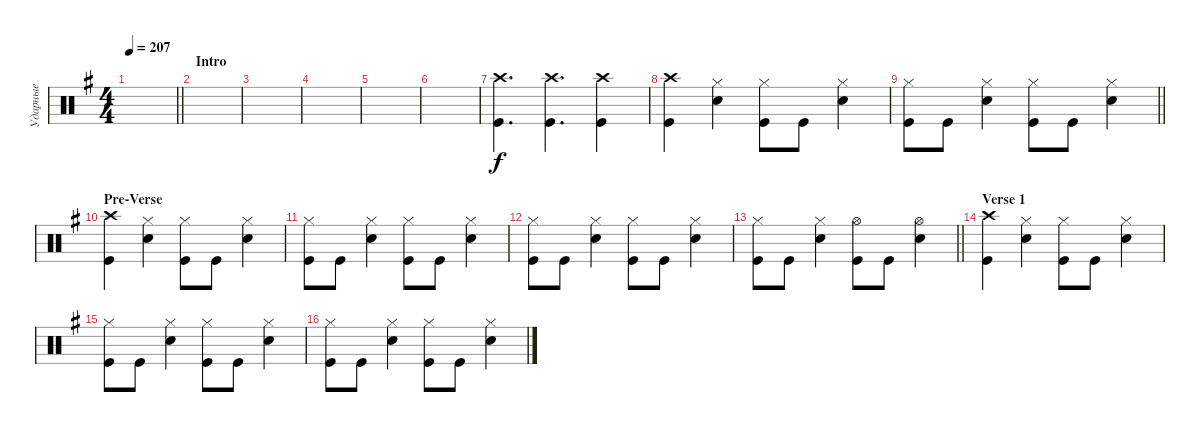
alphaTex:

\track ("Ударные" "Ударные") {instrument percussion}
\staff {score}
\articulation defaults
\ts (4 4)
\tempo 207
\clef neutral
\barLineRight lightlight
\ks eminor
|
\section ("" "Intro")
|
|
|
|
|
("Kick (hit)" "Crash high (hit)").4{d} ("Kick (hit)" "Crash high (hit)").4{d} ("Kick (hit)" "Crash high (hit)").4 |
("Kick (hit)" "Crash high (hit)").4 ("Snare (hit) 2" "Hi-Hat (closed)").4 ("Kick (hit)" "Hi-Hat (closed)").8 "Kick (hit)".8 ("Snare (hit) 2" "Hi-Hat (closed)").4 |
\barLineRight lightlight
("Kick (hit)" "Hi-Hat (closed)").8 "Kick (hit)".8 ("Snare (hit) 2" "Hi-Hat (closed)").4 ("Kick (hit)" "Hi-Hat (closed)").8 "Kick (hit)".8 ("Snare (hit) 2" "Hi-Hat (closed)").4 |
\section ("" "Pre-Verse")
("Kick (hit)" "Crash high (hit)").4 ("Snare (hit) 2" "Hi-Hat (closed)").4 ("Kick (hit)" "Hi-Hat (closed)").8 "Kick (hit)".8 ("Snare (hit) 2" "Hi-Hat (closed)").4 |
("Kick (hit)" "Hi-Hat (closed)").8 "Kick (hit)".8 ("Snare (hit) 2" "Hi-Hat (closed)").4 ("Kick (hit)" "Hi-Hat (closed)").8 "Kick (hit)".8 ("Snare (hit) 2" "Hi-Hat (closed)").4 |
("Kick (hit)" "Hi-Hat (closed)").8 "Kick (hit)".8 ("Snare (hit) 2" "Hi-Hat (closed)").4 ("Kick (hit)" "Hi-Hat (closed)").8 "Kick (hit)".8 ("Snare (hit) 2" "Hi-Hat (closed)").4 |
\barLineRight lightlight
("Kick (hit)" "Hi-Hat (closed)").8 "Kick (hit)".8 ("Snare (hit) 2" "Hi-Hat (closed)").4 ("Kick (hit)" "Hi-Hat (open)").8 "Kick (hit)".8 ("Snare (hit) 2" "Hi-Hat (open)").4 |
\section ("" "Verse 1")
("Kick (hit)" "Crash high (hit)").4 ("Snare (hit) 2" "Hi-Hat (closed)").4 ("Kick (hit)" "Hi-Hat (closed)").8 "Kick (hit)".8 ("Snare (hit) 2" "Hi-Hat (closed)").4 |
("Kick (hit)" "Hi-Hat (closed)").8 "Kick (hit)".8 ("Snare (hit) 2" "Hi-Hat (closed)").4 ("Kick (hit)" "Hi-Hat (closed)").8 "Kick (hit)".8 ("Snare (hit) 2" "Hi-Hat (closed)").4 |
("Kick (hit)" "Hi-Hat (closed)").8 "Kick (hit)".8 ("Snare (hit) 2" "Hi-Hat (closed)").4 ("Kick (hit)" "Hi-Hat (closed)").8 "Kick (hit)".8 ("Snare (hit) 2" "Hi-Hat (closed)").4
